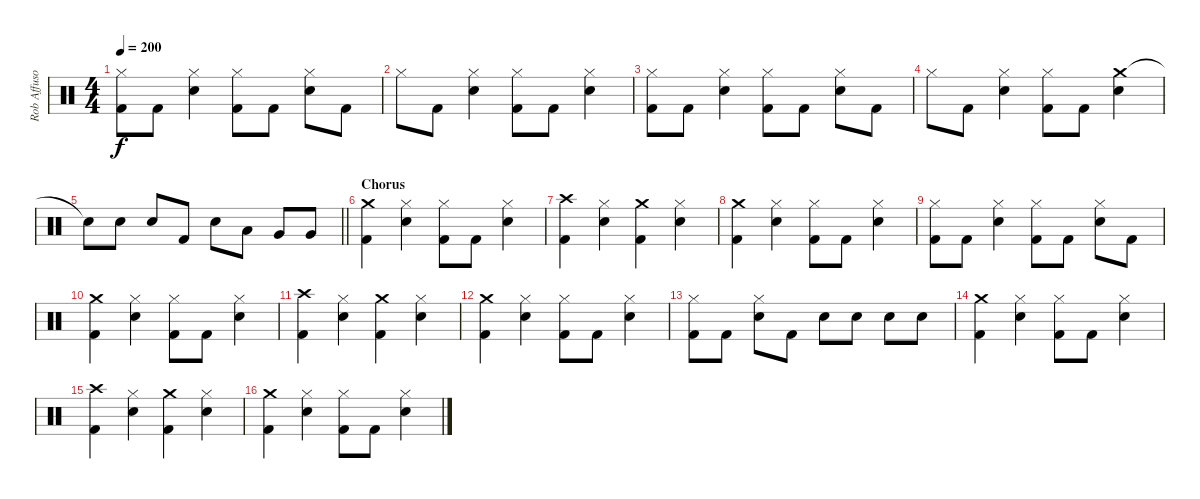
\track ("Rob Affuso - Drums" "Rob Affuso") {instrument percussion}
\staff {score}
\articulation defaults
\ts (4 4)
\tempo 200
\clef neutral
\ks c
("Hi-Hat (closed)" "Kick (hit) 2").8{dy f} "Kick (hit) 2".8 ("Hi-Hat (closed)" "Snare (hit) 2").4 ("Hi-Hat (closed)" "Kick (hit) 2").8 "Kick (hit) 2".8 ("Hi-Hat (closed)" "Snare (hit) 2").8 "Kick (hit) 2".8 |
"Hi-Hat (closed)".8 "Kick (hit) 2".8 ("Hi-Hat (closed)" "Snare (hit) 2").4 ("Hi-Hat (closed)" "Kick (hit) 2").8 "Kick (hit) 2".8 ("Hi-Hat (closed)" "Snare (hit) 2").4 |
("Hi-Hat (closed)" "Kick (hit) 2").8 "Kick (hit) 2".8 ("Hi-Hat (closed)" "Snare (hit) 2").4 ("Hi-Hat (closed)" "Kick (hit) 2").8 "Kick (hit) 2".8 ("Hi-Hat (closed)" "Snare (hit) 2").8 "Kick (hit) 2".8 |
"Hi-Hat (closed)".8 "Kick (hit) 2".8 ("Hi-Hat (closed)" "Snare (hit) 2").4 ("Hi-Hat (closed)" "Kick (hit) 2").8 "Kick (hit) 2".8 ("Crash medium (hit)" "Snare (hit) 2").4 |
\barLineRight lightlight "Snare (hit)"{t}.8 "Snare (hit) 2".8 "Snare (hit) 2".8 "Kick (hit) 2".8 "Snare (hit) 2".8 "Low Tom (hit)".8 "Very Low Tom (hit)".8 "Very Low Tom (hit)".8
|
\section ("" "Chorus")
("Crash medium (hit)" "Kick (hit) 2").4 ("Hi-Hat (closed)" "Snare (hit) 2").4 ("Hi-Hat (closed)" "Kick (hit) 2").8 "Kick (hit) 2".8 ("Hi-Hat (closed)" "Snare (hit) 2").4 |
("Crash high (hit)" "Kick (hit) 2").4 ("Hi-Hat (closed)" "Snare (hit) 2").4 ("Crash medium (hit)" "Kick (hit) 2").4 ("Hi-Hat (closed)" "Snare (hit) 2").4 |
("Crash medium (hit)" "Kick (hit) 2").4 ("Hi-Hat (closed)" "Snare (hit) 2").4 ("Hi-Hat (closed)" "Kick (hit) 2").8 "Kick (hit) 2".8 ("Hi-Hat (closed)" "Snare (hit) 2").4 |
("Hi-Hat (closed)" "Kick (hit) 2").8 "Kick (hit) 2".8 ("Hi-Hat (closed)" "Snare (hit) 2").4 ("Hi-Hat (closed)" "Kick (hit) 2").8 "Kick (hit) 2".8 ("Hi-Hat (closed)" "Snare (hit) 2").8 "Kick (hit) 2".8 |
("Crash medium (hit)" "Kick (hit) 2").4 ("Hi-Hat (closed)" "Snare (hit) 2").4 ("Hi-Hat (closed)" "Kick (hit) 2").8 "Kick (hit) 2".8 ("Hi-Hat (closed)" "Snare (hit) 2").4 |
("Crash high (hit)" "Kick (hit) 2").4 ("Hi-Hat (closed)" "Snare (hit) 2").4 ("Crash medium (hit)" "Kick (hit) 2").4 ("Hi-Hat (closed)" "Snare (hit) 2").4 |
("Crash medium (hit)" "Kick (hit) 2").4 ("Hi-Hat (closed)" "Snare (hit) 2").4 ("Hi-Hat (closed)" "Kick (hit) 2").8 "Kick (hit) 2".8 ("Hi-Hat (closed)" "Snare (hit) 2").4 |
("Hi-Hat (closed)" "Kick (hit) 2").8 "Kick (hit) 2".8 ("Hi-Hat (closed)" "Snare (hit) 2").8 "Kick (hit) 2".8 "Snare (hit) 2".8 "Snare (hit) 2".8 "Snare (hit) 2".8 "Snare (hit) 2".8 |
("Crash medium (hit)" "Kick (hit) 2").4 ("Hi-Hat (closed)" "Snare (hit) 2").4 ("Hi-Hat (closed)" "Kick (hit) 2").8 "Kick (hit) 2".8 ("Hi-Hat (closed)" "Snare (hit) 2").4 |
("Crash high (hit)" "Kick (hit) 2").4 ("Hi-Hat (closed)" "Snare (hit) 2").4 ("Crash medium (hit)" "Kick (hit) 2").4 ("Hi-Hat (closed)" "Snare (hit) 2").4 |
("Crash medium (hit)" "Kick (hit) 2").4 ("Hi-Hat (closed)" "Snare (hit) 2").4 ("Hi-Hat (closed)" "Kick (hit) 2").8 "Kick (hit) 2".8 ("Hi-Hat (closed)" "Snare (hit) 2").4
